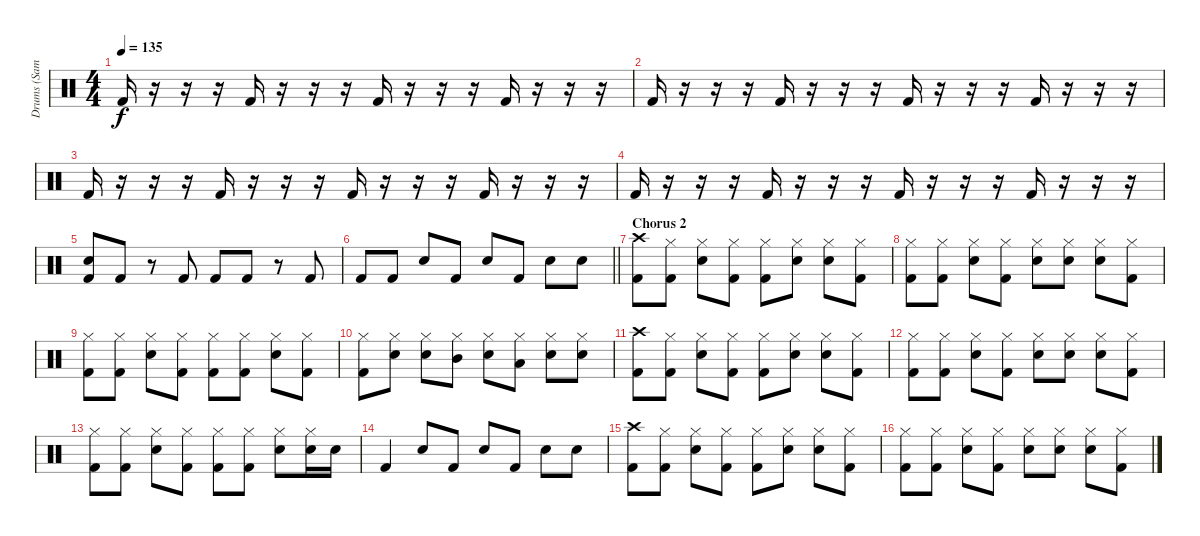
\track ("Drums (Sam Fogarino)" "Drums (Sam") {instrument percussion}
\staff {score}
\articulation defaults
\ts (4 4)
\tempo 135
\clef neutral
\ks c "Kick (hit) 2".16{dy f}
r.16 r.16 r.16 "Kick (hit) 2".16 r.16 r.16 r.16 "Kick (hit) 2".16 r.16 r.16 r.16 "Kick (hit) 2".16 r.16 r.16 r.16 |
"Kick (hit) 2".16 r.16 r.16 r.16 "Kick (hit) 2".16 r.16 r.16 r.16 "Kick (hit) 2".16 r.16 r.16 r.16 "Kick (hit) 2".16 r.16 r.16 r.16 |
"Kick (hit) 2".16 r.16 r.16 r.16 "Kick (hit) 2".16 r.16 r.16 r.16 "Kick (hit) 2".16 r.16 r.16 r.16 "Kick (hit) 2".16 r.16 r.16 r.16 |
"Kick (hit) 2".16 r.16 r.16 r.16 "Kick (hit) 2".16 r.16 r.16 r.16 "Kick (hit) 2".16 r.16 r.16 r.16 "Kick (hit) 2".16 r.16 r.16 r.16 |
("Snare (hit) 2" "Kick (hit) 2").8 "Kick (hit) 2".8 r.8 "Kick (hit) 2".8 "Kick (hit) 2".8 "Kick (hit) 2".8 r.8 "Kick (hit) 2".8 |
\barLineRight lightlight "Kick (hit) 2".8 "Kick (hit) 2".8 "Snare (hit) 2".8 "Kick (hit) 2".8 "Snare (hit) 2".8 "Kick (hit) 2".8 "Snare (hit) 2".8 "Snare (hit) 2".8
|
\section ("" "Chorus 2")
("Crash high (hit)" "Kick (hit) 2").8 ("Hi-Hat (closed)" "Kick (hit) 2").8 ("Hi-Hat (closed)" "Snare (hit) 2").8 ("Hi-Hat (closed)" "Kick (hit) 2").8 ("Hi-Hat (closed)" "Kick (hit) 2").8 ("Hi-Hat (closed)" "Snare (hit) 2").8 ("Hi-Hat (closed)" "Snare (hit) 2").8 ("Hi-Hat (closed)" "Kick (hit) 2").8 |
("Hi-Hat (closed)" "Kick (hit) 2").8 ("Hi-Hat (closed)" "Kick (hit) 2").8 ("Hi-Hat (closed)" "Snare (hit) 2").8 ("Hi-Hat (closed)" "Kick (hit) 2").8 ("Hi-Hat (closed)" "Snare (hit) 2").8 ("Hi-Hat (closed)" "Snare (hit) 2").8 ("Hi-Hat (closed)" "Snare (hit) 2").8 ("Hi-Hat (closed)" "Kick (hit) 2").8 |
("Hi-Hat (closed)" "Kick (hit) 2").8 ("Hi-Hat (closed)" "Kick (hit) 2").8 ("Hi-Hat (closed)" "Snare (hit) 2").8 ("Hi-Hat (closed)" "Kick (hit) 2").8 ("Hi-Hat (closed)" "Kick (hit) 2").8 ("Hi-Hat (closed)" "Kick (hit) 2").8 ("Hi-Hat (closed)" "Snare (hit) 2").8 ("Hi-Hat (closed)" "Kick (hit) 2").8 |
("Hi-Hat (closed)" "Kick (hit) 2").8 ("Hi-Hat (closed)" "Snare (hit) 2").8 ("Hi-Hat (closed)" "Snare (hit) 2").8 ("Hi-Hat (closed)" "Mid Tom (hit)").8 ("Hi-Hat (closed)" "Snare (hit) 2").8 ("Hi-Hat (closed)" "Low Tom (hit)").8 ("Hi-Hat (closed)" "Snare (hit) 2").8 ("Hi-Hat (closed)" "Snare (hit) 2").8 |
("Crash high (hit)" "Kick (hit) 2").8 ("Hi-Hat (closed)" "Kick (hit) 2").8 ("Hi-Hat (closed)" "Snare (hit) 2").8 ("Hi-Hat (closed)" "Kick (hit) 2").8 ("Hi-Hat (closed)" "Kick (hit) 2").8 ("Hi-Hat (closed)" "Snare (hit) 2").8 ("Hi-Hat (closed)" "Snare (hit) 2").8 ("Hi-Hat (closed)" "Kick (hit) 2").8 |
("Hi-Hat (closed)" "Kick (hit) 2").8 ("Hi-Hat (closed)" "Kick (hit) 2").8 ("Hi-Hat (closed)" "Snare (hit) 2").8 ("Hi-Hat (closed)" "Kick (hit) 2").8 ("Hi-Hat (closed)" "Snare (hit) 2").8 ("Hi-Hat (closed)" "Snare (hit) 2").8 ("Hi-Hat (closed)" "Snare (hit) 2").8 ("Hi-Hat (closed)" "Kick (hit) 2").8 |
("Hi-Hat (closed)" "Kick (hit) 2").8 ("Hi-Hat (closed)" "Kick (hit) 2").8 ("Hi-Hat (closed)" "Snare (hit) 2").8 ("Hi-Hat (closed)" "Kick (hit) 2").8 ("Hi-Hat (closed)" "Kick (hit) 2").8 ("Hi-Hat (closed)" "Kick (hit) 2").8 ("Hi-Hat (closed)" "Snare (hit) 2").8 ("Hi-Hat (closed)" "Snare (hit) 2").16 "Snare (hit) 2".16 |
"Kick (hit) 2".4 "Snare (hit) 2".8 "Kick (hit) 2".8 "Snare (hit) 2".8 "Kick (hit) 2".8 "Snare (hit) 2".8 "Snare (hit) 2".8 |
("Crash high (hit)" "Kick (hit) 2").8 ("Hi-Hat (closed)" "Kick (hit) 2").8 ("Hi-Hat (closed)" "Snare (hit) 2").8 ("Hi-Hat (closed)" "Kick (hit) 2").8 ("Hi-Hat (closed)" "Kick (hit) 2").8 ("Hi-Hat (closed)" "Snare (hit) 2").8 ("Hi-Hat (closed)" "Snare (hit) 2").8 ("Hi-Hat (closed)" "Kick (hit) 2").8 |
("Hi-Hat (closed)" "Kick (hit) 2").8 ("Hi-Hat (closed)" "Kick (hit) 2").8 ("Hi-Hat (closed)" "Snare (hit) 2").8 ("Hi-Hat (closed)" "Kick (hit) 2").8 ("Hi-Hat (closed)" "Snare (hit) 2").8 ("Hi-Hat (closed)" "Snare (hit) 2").8 ("Hi-Hat (closed)" "Snare (hit) 2").8 ("Hi-Hat (closed)" "Kick (hit) 2").8
